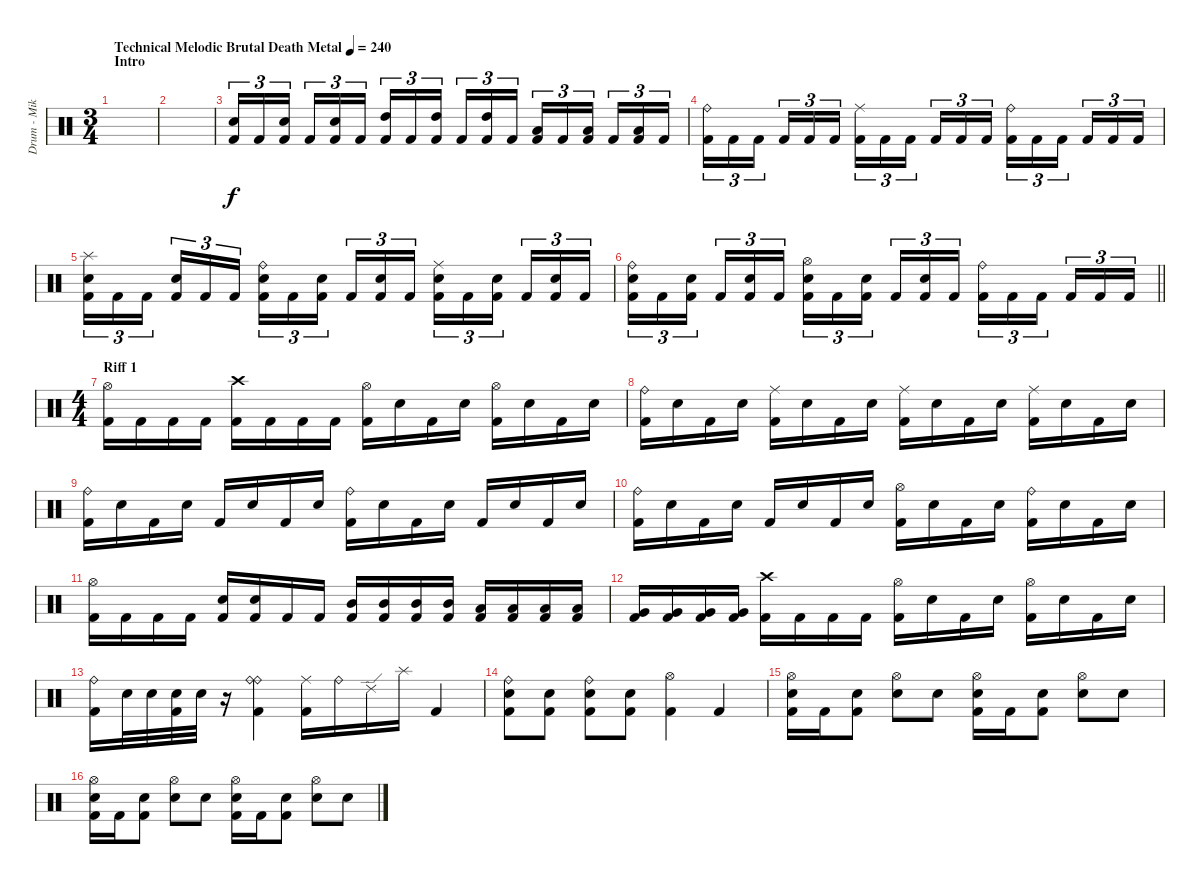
\track ("Drum - Mike Collins" "Drum - Mik") {instrument percussion}
\staff {score}
\articulation defaults
\ts (3 4)
\section ("" "Intro")
\tempo (240 "Technical Melodic Brutal Death Metal")
\clef neutral
\ks c
|
|
("Electric Snare (hit)" "Kick (hit) 2").16{tu (3 2)} "Kick (hit) 2".16{tu (3 2)} ("Electric Snare (hit)" "Kick (hit) 2").16{tu (3 2) beam splitsecondary} "Kick (hit) 2".16{tu (3 2)} ("Electric Snare (hit)" "Kick (hit) 2").16{tu (3 2)} "Kick (hit) 2".16{tu (3 2)} ("High Tom (hit)" "Kick (hit) 2").16{tu (3 2)} "Kick (hit) 2".16{tu (3 2)} ("High Tom (hit)" "Kick (hit) 2").16{tu (3 2) beam splitsecondary} "Kick (hit) 2".16{tu (3 2)} ("High Tom (hit)" "Kick (hit) 2").16{tu (3 2)} "Kick (hit) 2".16{tu (3 2)} ("Low Tom (hit)" "Kick (hit) 2").16{tu (3 2)} "Kick (hit) 2".16{tu (3 2)} ("Low Tom (hit)" "Kick (hit) 2").16{tu (3 2) beam splitsecondary} "Kick (hit) 2".16{tu (3 2)} ("Low Tom (hit)" "Kick (hit) 2").16{tu (3 2)} "Kick (hit) 2".16{tu (3 2)} |
("Ride (bell)" "Kick (hit) 2").16{tu (3 2)} "Kick (hit) 2".16{tu (3 2)} "Kick (hit) 2".16{tu (3 2) beam splitsecondary} "Kick (hit) 2".16{tu (3 2)} "Kick (hit) 2".16{tu (3 2)} "Kick (hit) 2".16{tu (3 2)} ("Ride (middle)" "Kick (hit) 2").16{tu (3 2)} "Kick (hit) 2".16{tu (3 2)} "Kick (hit) 2".16{tu (3 2) beam splitsecondary} "Kick (hit) 2".16{tu (3 2)} "Kick (hit) 2".16{tu (3 2)} "Kick (hit) 2".16{tu (3 2)} ("Ride (bell)" "Kick (hit) 2").16{tu (3 2)} "Kick (hit) 2".16{tu (3 2)} "Kick (hit) 2".16{tu (3 2) beam splitsecondary} "Kick (hit) 2".16{tu (3 2)} "Kick (hit) 2".16{tu (3 2)} "Kick (hit) 2".16{tu (3 2)} |
("Splash (hit)" "Electric Snare (hit)" "Kick (hit) 2").16{tu (3 2)} "Kick (hit) 2".16{tu (3 2)} "Kick (hit) 2".16{tu (3 2) beam splitsecondary} ("Electric Snare (hit)" "Kick (hit) 2").16{tu (3 2)} "Kick (hit) 2".16{tu (3 2)} "Kick (hit) 2".16{tu (3 2)} ("Ride (bell)" "Electric Snare (hit)" "Kick (hit) 2").16{tu (3 2)} "Kick (hit) 2".16{tu (3 2)} ("Electric Snare (hit)" "Kick (hit) 2").16{tu (3 2) beam splitsecondary} "Kick (hit) 2".16{tu (3 2)} ("Electric Snare (hit)" "Kick (hit) 2").16{tu (3 2)} "Kick (hit) 2".16{tu (3 2)} ("Ride (middle)" "Electric Snare (hit)" "Kick (hit) 2").16{tu (3 2)} "Kick (hit) 2".16{tu (3 2)} ("Electric Snare (hit)" "Kick (hit) 2").16{tu (3 2) beam splitsecondary} "Kick (hit) 2".16{tu (3 2)} ("Electric Snare (hit)" "Kick (hit) 2").16{tu (3 2)} "Kick (hit) 2".16{tu (3 2)} |
\barLineRight lightlight
("Ride (bell)" "Electric Snare (hit)" "Kick (hit) 2").16{tu (3 2)} "Kick (hit) 2".16{tu (3 2)} ("Electric Snare (hit)" "Kick (hit) 2").16{tu (3 2) beam splitsecondary} "Kick (hit) 2".16{tu (3 2)} ("Electric Snare (hit)" "Kick (hit) 2").16{tu (3 2)} "Kick (hit) 2".16{tu (3 2)} ("Hi-Hat (open)" "Electric Snare (hit)" "Kick (hit) 2").16{tu (3 2)} "Kick (hit) 2".16{tu (3 2)} ("Electric Snare (hit)" "Kick (hit) 2").16{tu (3 2) beam splitsecondary} "Kick (hit) 2".16{tu (3 2)} ("Electric Snare (hit)" "Kick (hit) 2").16{tu (3 2)} "Kick (hit) 2".16{tu (3 2)} ("Ride (bell)" "Kick (hit) 2").16{tu (3 2)} "Kick (hit) 2".16{tu (3 2)} "Kick (hit) 2".16{tu (3 2) beam splitsecondary} "Kick (hit) 2".16{tu (3 2)} "Kick (hit) 2".16{tu (3 2)} "Kick (hit) 2".16{tu (3 2)} |
\ts (4 4)
\section ("" "Riff 1")
("Hi-Hat (open)" "Kick (hit) 2").16 "Kick (hit) 2".16 "Kick (hit) 2".16 "Kick (hit) 2".16 ("Crash high (hit)" "Kick (hit) 2").16 "Kick (hit) 2".16 "Kick (hit) 2".16 "Kick (hit) 2".16 ("Hi-Hat (open)" "Kick (hit) 2").16 "Electric Snare (hit)".16 "Kick (hit) 2".16 "Electric Snare (hit)".16 ("Hi-Hat (open)" "Kick (hit) 2").16 "Electric Snare (hit)".16 "Kick (hit) 2".16 "Electric Snare (hit)".16 |
("Ride (bell)" "Kick (hit) 2").16 "Electric Snare (hit)".16 "Kick (hit) 2".16 "Electric Snare (hit)".16 ("Ride (middle)" "Kick (hit) 2").16 "Electric Snare (hit)".16 "Kick (hit) 2".16 "Electric Snare (hit)".16 ("Ride (middle)" "Kick (hit) 2").16 "Electric Snare (hit)".16 "Kick (hit) 2".16 "Electric Snare (hit)".16 ("Ride (middle)" "Kick (hit) 2").16 "Electric Snare (hit)".16 "Kick (hit) 2".16 "Electric Snare (hit)".16 |
("Ride (bell)" "Kick (hit) 2").16 "Electric Snare (hit)".16 "Kick (hit) 2".16 "Electric Snare (hit)".16 "Kick (hit) 2".16 "Electric Snare (hit)".16 "Kick (hit) 2".16 "Electric Snare (hit)".16 ("Ride (bell)" "Kick (hit) 2").16 "Electric Snare (hit)".16 "Kick (hit) 2".16 "Electric Snare (hit)".16 "Kick (hit) 2".16 "Electric Snare (hit)".16 "Kick (hit) 2".16 "Electric Snare (hit)".16 |
("Ride (bell)" "Kick (hit) 2").16 "Electric Snare (hit)".16 "Kick (hit) 2".16 "Electric Snare (hit)".16 "Kick (hit) 2".16 "Electric Snare (hit)".16 "Kick (hit) 2".16 "Electric Snare (hit)".16 ("Hi-Hat (open)" "Kick (hit) 2").16 "Electric Snare (hit)".16 "Kick (hit) 2".16 "Electric Snare (hit)".16 ("Ride (bell)" "Kick (hit) 2").16 "Electric Snare (hit)".16 "Kick (hit) 2".16 "Electric Snare (hit)".16 |
("Hi-Hat (open)" "Kick (hit) 2").16 "Kick (hit) 2".16 "Kick (hit) 2".16 "Kick (hit) 2".16 ("Electric Snare (hit)" "Kick (hit) 2").16 ("Electric Snare (hit)" "Kick (hit) 2").16 "Kick (hit) 2".16 "Kick (hit) 2".16 ("Mid Tom (hit)" "Kick (hit) 2").16 ("Mid Tom (hit)" "Kick (hit) 2").16 ("Mid Tom (hit)" "Kick (hit) 2").16 ("Mid Tom (hit)" "Kick (hit) 2").16 ("Low Tom (hit)" "Kick (hit) 2").16 ("Low Tom (hit)" "Kick (hit) 2").16 ("Low Tom (hit)" "Kick (hit) 2").16 ("Low Tom (hit)" "Kick (hit) 2").16 |
("Very Low Tom (hit)" "Kick (hit) 2").16 ("Very Low Tom (hit)" "Kick (hit) 2").16 ("Very Low Tom (hit)" "Kick (hit) 2").16 ("Very Low Tom (hit)" "Kick (hit) 2").16 ("Crash high (hit)" "Kick (hit) 2").16 "Kick (hit) 2".16 "Kick (hit) 2".16 "Kick (hit) 2".16 ("Hi-Hat (open)" "Kick (hit) 2").16 "Electric Snare (hit)".16 "Kick (hit) 2".16 "Electric Snare (hit)".16 ("Hi-Hat (open)" "Kick (hit) 2").16 "Electric Snare (hit)".16 "Kick (hit) 2".16 "Electric Snare (hit)".16 |
("Ride (bell)" "Kick (hit) 2").16 "Electric Snare (hit)".32 "Electric Snare (hit)".32 ("Electric Snare (hit)" "Kick (hit) 2").32 "Electric Snare (hit)".32 r.16 ("Ride (bell)" "Ride (bell)" "Kick (hit) 2").4 ("Ride (middle)" "Kick (hit) 2").16 "Ride (bell)".16 "Ride (edge) 2".16 "Splash (hit)".16 "Kick (hit) 2".4 |
("Ride (bell)" "Electric Snare (hit)" "Kick (hit) 2").8 ("Electric Snare (hit)" "Kick (hit) 2").8 ("Ride (bell)" "Electric Snare (hit)" "Kick (hit) 2").8 ("Electric Snare (hit)" "Kick (hit) 2").8 ("Hi-Hat (open)" "Kick (hit) 2").4 "Kick (hit) 2".4 |
("Hi-Hat (open)" "Electric Snare (hit)" "Kick (hit) 2").16 "Kick (hit) 2".16 ("Electric Snare (hit)" "Kick (hit) 2").8 ("Hi-Hat (open)" "Electric Snare (hit)").8 "Electric Snare (hit)".8 ("Hi-Hat (open)" "Electric Snare (hit)" "Kick (hit) 2").16 "Kick (hit) 2".16 ("Electric Snare (hit)" "Kick (hit) 2").8 ("Hi-Hat (open)" "Electric Snare (hit)").8 "Electric Snare (hit)".8 |
("Hi-Hat (open)" "Electric Snare (hit)" "Kick (hit) 2").16 "Kick (hit) 2".16 ("Electric Snare (hit)" "Kick (hit) 2").8 ("Hi-Hat (open)" "Electric Snare (hit)").8 "Electric Snare (hit)".8 ("Hi-Hat (open)" "Electric Snare (hit)" "Kick (hit) 2").16 "Kick (hit) 2".16 ("Electric Snare (hit)" "Kick (hit) 2").8 ("Hi-Hat (open)" "Electric Snare (hit)").8 "Electric Snare (hit)".8
